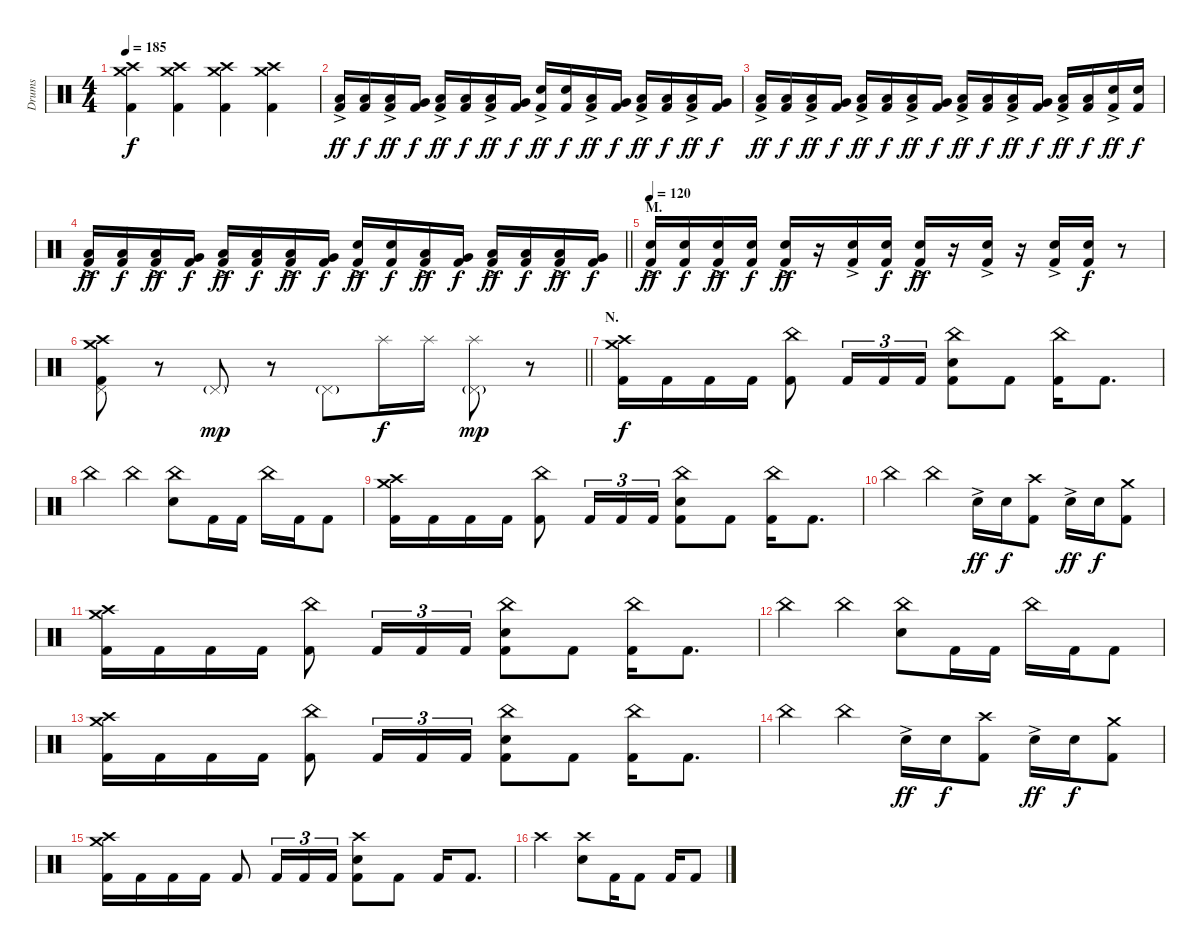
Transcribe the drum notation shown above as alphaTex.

\track ("Drums" "Drums") {instrument percussion}
\staff {score}
\articulation defaults
\ts (4 4)
\tempo 185
\clef neutral
\ks c
("Crash medium (hit)" "Crash high (hit)" "Kick (hit) 2").4{dy f} ("Crash medium (hit)" "Crash high (hit)" "Kick (hit) 2").4 ("Crash medium (hit)" "Crash high (hit)" "Kick (hit) 2").4 ("Crash medium (hit)" "Crash high (hit)" "Kick (hit) 2").4 |
("Low Floor Tom (hit)"{ac} "Kick (hit) 2").16{dy ff} ("Low Tom (hit)" "Kick (hit) 2").16{dy f} ("Low Floor Tom (hit)"{ac} "Kick (hit) 2").16{dy ff} ("Very Low Tom (hit)" "Kick (hit) 2").16{dy f} ("Low Floor Tom (hit)"{ac} "Kick (hit) 2").16{dy ff} ("Low Tom (hit)" "Kick (hit) 2").16{dy f} ("Low Floor Tom (hit)"{ac} "Kick (hit) 2").16{dy ff} ("Very Low Tom (hit)" "Kick (hit) 2").16{dy f} ("Electric Snare (hit)"{ac} "Kick (hit) 2").16{dy ff} ("Electric Snare (hit)" "Kick (hit) 2").16{dy f} ("Low Floor Tom (hit)"{ac} "Kick (hit) 2").16{dy ff} ("Very Low Tom (hit)" "Kick (hit) 2").16{dy f} ("Low Floor Tom (hit)"{ac} "Kick (hit) 2").16{dy ff} ("Low Tom (hit)" "Kick (hit) 2").16{dy f} ("Low Floor Tom (hit)"{ac} "Kick (hit) 2").16{dy ff} ("Very Low Tom (hit)" "Kick (hit) 2").16{dy f} |
("Low Floor Tom (hit)"{ac} "Kick (hit) 2").16{dy ff} ("Low Tom (hit)" "Kick (hit) 2").16{dy f} ("Low Floor Tom (hit)"{ac} "Kick (hit) 2").16{dy ff} ("Very Low Tom (hit)" "Kick (hit) 2").16{dy f} ("Low Floor Tom (hit)"{ac} "Kick (hit) 2").16{dy ff} ("Low Tom (hit)" "Kick (hit) 2").16{dy f} ("Low Floor Tom (hit)"{ac} "Kick (hit) 2").16{dy ff} ("Very Low Tom (hit)" "Kick (hit) 2").16{dy f} ("Low Floor Tom (hit)"{ac} "Kick (hit) 2").16{dy ff} ("Low Tom (hit)" "Kick (hit) 2").16{dy f} ("Low Floor Tom (hit)"{ac} "Kick (hit) 2").16{dy ff} ("Very Low Tom (hit)" "Kick (hit) 2").16{dy f} ("Low Floor Tom (hit)"{ac} "Kick (hit) 2").16{dy ff} ("Low Tom (hit)" "Kick (hit) 2").16{dy f} ("Electric Snare (hit)"{ac} "Kick (hit) 2").16{dy ff} ("Electric Snare (hit)" "Kick (hit) 2").16{dy f} |
\barLineRight lightlight
("Low Floor Tom (hit)"{ac} "Kick (hit) 2").16{dy ff} ("Low Tom (hit)" "Kick (hit) 2").16{dy f} ("Low Floor Tom (hit)"{ac} "Kick (hit) 2").16{dy ff} ("Very Low Tom (hit)" "Kick (hit) 2").16{dy f} ("Low Floor Tom (hit)"{ac} "Kick (hit) 2").16{dy ff} ("Low Tom (hit)" "Kick (hit) 2").16{dy f} ("Low Floor Tom (hit)"{ac} "Kick (hit) 2").16{dy ff} ("Very Low Tom (hit)" "Kick (hit) 2").16{dy f} ("Electric Snare (hit)"{ac} "Kick (hit) 2").16{dy ff} ("Electric Snare (hit)" "Kick (hit) 2").16{dy f} ("Low Floor Tom (hit)"{ac} "Kick (hit) 2").16{dy ff} ("Very Low Tom (hit)" "Kick (hit) 2").16{dy f} ("Low Floor Tom (hit)"{ac} "Kick (hit) 2").16{dy ff} ("Low Tom (hit)" "Kick (hit) 2").16{dy f} ("Low Floor Tom (hit)"{ac} "Kick (hit) 2").16{dy ff} ("Very Low Tom (hit)" "Kick (hit) 2").16{dy f} |
\section ("" "M.")
\tempo 120
("Electric Snare (hit)"{ac} "Kick (hit) 2").16{dy ff} ("Electric Snare (hit)" "Kick (hit) 2").16{dy f} ("Electric Snare (hit)"{ac} "Kick (hit) 2").16{dy ff} ("Electric Snare (hit)" "Kick (hit) 2").16{dy f} ("Electric Snare (hit)"{ac} "Kick (hit) 2").16{dy ff} r.16 ("Electric Snare (hit)"{ac} "Kick (hit) 2").16 ("Electric Snare (hit)" "Kick (hit) 2").16{dy f} ("Electric Snare (hit)"{ac} "Kick (hit) 2").16{dy ff} r.16 ("Electric Snare (hit)"{ac} "Kick (hit) 2").16 r.16 ("Electric Snare (hit)"{ac} "Kick (hit) 2").16 ("Electric Snare (hit)" "Kick (hit) 2").16{dy f} r.8 |
\barLineRight lightlight
("Crash medium (hit)" "Crash high (hit)" "Pedal Hi-Hat (hit)" "Kick (hit) 2").8 r.8 "Pedal Hi-Hat (hit)"{g}.8{dy mp} r.8 "Pedal Hi-Hat (hit)"{g}.8 "Splash (hit)".16{dy f} "Splash (hit)".16 ("Splash (hit)" "Pedal Hi-Hat (hit)"{g}).8{dy mp} r.8 |
\section ("" "N.")
("Crash medium (hit)" "Crash high (hit)" "Kick (hit) 2").16{dy f} "Kick (hit) 2".16 "Kick (hit) 2".16 "Kick (hit) 2".16 ("China (hit)" "Kick (hit) 2").8 "Kick (hit) 2".16{tu (3 2)} "Kick (hit) 2".16{tu (3 2)} "Kick (hit) 2".16{tu (3 2)} ("China (hit)" "Electric Snare (hit)" "Kick (hit) 2").8 "Kick (hit) 2".8 ("China (hit)" "Kick (hit) 2").16 "Kick (hit) 2".8{d} |
"China (hit)".4 "China (hit)".4 ("China (hit)" "Electric Snare (hit)").8 "Kick (hit) 2".16 "Kick (hit) 2".16 "China (hit)".16 "Kick (hit) 2".16 "Kick (hit) 2".8 |
("Crash medium (hit)" "Crash high (hit)" "Kick (hit) 2").16 "Kick (hit) 2".16 "Kick (hit) 2".16 "Kick (hit) 2".16 ("China (hit)" "Kick (hit) 2").8 "Kick (hit) 2".16{tu (3 2)} "Kick (hit) 2".16{tu (3 2)} "Kick (hit) 2".16{tu (3 2)} ("China (hit)" "Electric Snare (hit)" "Kick (hit) 2").8 "Kick (hit) 2".8 ("China (hit)" "Kick (hit) 2").16 "Kick (hit) 2".8{d} |
"China (hit)".4 "China (hit)".4 "Electric Snare (hit)"{ac}.16{dy ff} "Electric Snare (hit)".16{dy f} ("Crash high (hit)" "Kick (hit) 2").8 "Electric Snare (hit)"{ac}.16{dy ff} "Electric Snare (hit)".16{dy f} ("Crash medium (hit)" "Kick (hit) 2").8 |
("Crash medium (hit)" "Crash high (hit)" "Kick (hit) 2").16 "Kick (hit) 2".16 "Kick (hit) 2".16 "Kick (hit) 2".16 ("China (hit)" "Kick (hit) 2").8 "Kick (hit) 2".16{tu (3 2)} "Kick (hit) 2".16{tu (3 2)} "Kick (hit) 2".16{tu (3 2)} ("China (hit)" "Electric Snare (hit)" "Kick (hit) 2").8 "Kick (hit) 2".8 ("China (hit)" "Kick (hit) 2").16 "Kick (hit) 2".8{d} |
"China (hit)".4 "China (hit)".4 ("China (hit)" "Electric Snare (hit)").8 "Kick (hit) 2".16 "Kick (hit) 2".16 "China (hit)".16 "Kick (hit) 2".16 "Kick (hit) 2".8 |
("Crash medium (hit)" "Crash high (hit)" "Kick (hit) 2").16 "Kick (hit) 2".16 "Kick (hit) 2".16 "Kick (hit) 2".16 ("China (hit)" "Kick (hit) 2").8 "Kick (hit) 2".16{tu (3 2)} "Kick (hit) 2".16{tu (3 2)} "Kick (hit) 2".16{tu (3 2)} ("China (hit)" "Electric Snare (hit)" "Kick (hit) 2").8 "Kick (hit) 2".8 ("China (hit)" "Kick (hit) 2").16 "Kick (hit) 2".8{d} |
"China (hit)".4 "China (hit)".4 "Electric Snare (hit)"{ac}.16{dy ff} "Electric Snare (hit)".16{dy f} ("Crash high (hit)" "Kick (hit) 2").8 "Electric Snare (hit)"{ac}.16{dy ff} "Electric Snare (hit)".16{dy f} ("Crash medium (hit)" "Kick (hit) 2").8 |
("Crash medium (hit)" "Crash high (hit)" "Kick (hit) 2").16 "Kick (hit) 2".16 "Kick (hit) 2".16 "Kick (hit) 2".16 "Kick (hit) 2".8 "Kick (hit) 2".16{tu (3 2)} "Kick (hit) 2".16{tu (3 2)} "Kick (hit) 2".16{tu (3 2)} ("Crash high (hit)" "Electric Snare (hit)" "Kick (hit) 2").8 "Kick (hit) 2".8 "Kick (hit) 2".16 "Kick (hit) 2".8{d} |
"Crash high (hit)".2 ("Crash high (hit)" "Electric Snare (hit)").8 "Kick (hit) 2".16 "Kick (hit) 2".8 "Kick (hit) 2".16 "Kick (hit) 2".8
